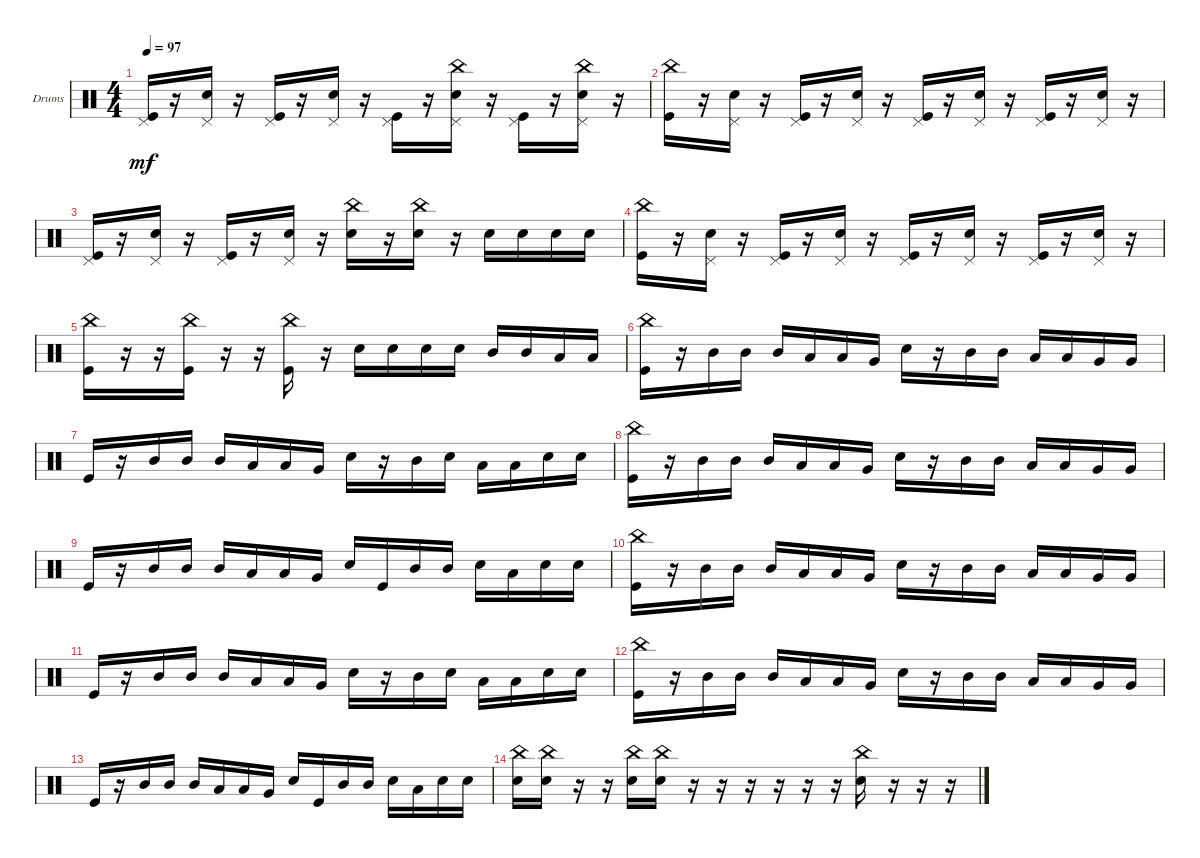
\defaultSystemsLayout 4
\bracketExtendMode groupsimilarinstruments
\firstSystemTrackNameOrientation horizontal
\otherSystemsTrackNameOrientation horizontal
\track ("Drumkit" "Drums") {instrument percussion}
\staff {score}
\articulation defaults
\ts (4 4)
\tempo 97
\clef neutral
\ks c
("Kick (hit)" "Pedal Hi-Hat (hit)").16{dy mf} r.16 ("Snare (hit) 2" "Pedal Hi-Hat (hit)").16 r.16 ("Kick (hit)" "Pedal Hi-Hat (hit)").16 r.16 ("Pedal Hi-Hat (hit)" "Snare (hit) 2").16 r.16 ("Pedal Hi-Hat (hit)" "Kick (hit)").16 r.16 ("Pedal Hi-Hat (hit)" "Snare (hit) 2" "China (hit)").16 r.16 ("Pedal Hi-Hat (hit)" "Kick (hit)").16 r.16 ("Pedal Hi-Hat (hit)" "Snare (hit) 2" "China (hit)").16 r.16 |
("Kick (hit)" "China (hit)").16 r.16 ("Snare (hit) 2" "Pedal Hi-Hat (hit)").16 r.16 ("Kick (hit)" "Pedal Hi-Hat (hit)").16 r.16 ("Pedal Hi-Hat (hit)" "Snare (hit) 2").16 r.16 ("Pedal Hi-Hat (hit)" "Kick (hit)").16 r.16 ("Pedal Hi-Hat (hit)" "Snare (hit) 2").16 r.16 ("Pedal Hi-Hat (hit)" "Kick (hit)").16 r.16 ("Pedal Hi-Hat (hit)" "Snare (hit) 2").16 r.16 |
("Pedal Hi-Hat (hit)" "Kick (hit)").16 r.16 ("Pedal Hi-Hat (hit)" "Snare (hit) 2").16 r.16 ("Pedal Hi-Hat (hit)" "Kick (hit)").16 r.16 ("Pedal Hi-Hat (hit)" "Snare (hit) 2").16 r.16 ("Snare (hit) 2" "China (hit)").16 r.16 ("China (hit)" "Snare (hit) 2").16 r.16 "Snare (hit) 2".16 "Snare (hit) 2".16 "Snare (hit) 2".16 "Snare (hit) 2".16 |
("Kick (hit)" "China (hit)").16 r.16 ("Snare (hit) 2" "Pedal Hi-Hat (hit)").16 r.16 ("Kick (hit)" "Pedal Hi-Hat (hit)").16 r.16 ("Pedal Hi-Hat (hit)" "Snare (hit) 2").16 r.16 ("Pedal Hi-Hat (hit)" "Kick (hit)").16 r.16 ("Pedal Hi-Hat (hit)" "Snare (hit) 2").16 r.16 ("Pedal Hi-Hat (hit)" "Kick (hit)").16 r.16 ("Pedal Hi-Hat (hit)" "Snare (hit) 2").16 r.16 |
("Kick (hit)" "China (hit)").16 r.16 r.16 ("Kick (hit)" "China (hit)").16 r.16 r.16 ("China (hit)" "Kick (hit)").16 r.16 "Snare (hit) 2".16 "Snare (hit) 2".16 "Snare (hit) 2".16 "Snare (hit) 2".16 "Mid Tom (hit)".16 "Mid Tom (hit)".16 "Low Tom (hit)".16 "Low Tom (hit)".16 |
("Kick (hit)" "China (hit)").16 r.16 "Mid Tom (hit)".16 "Mid Tom (hit)".16 "Mid Tom (hit)".16 "Low Tom (hit)".16 "Low Tom (hit)".16 "Very Low Tom (hit)".16 "Snare (hit) 2".16 r.16 "Mid Tom (hit)".16 "Mid Tom (hit)".16 "Low Tom (hit)".16 "Low Tom (hit)".16 "Very Low Tom (hit)".16 "Very Low Tom (hit)".16 |
"Kick (hit)".16 r.16 "Mid Tom (hit)".16 "Mid Tom (hit)".16 "Mid Tom (hit)".16 "Low Tom (hit)".16 "Low Tom (hit)".16 "Very Low Tom (hit)".16 "Snare (hit) 2".16 r.16 "Mid Tom (hit)".16 "Snare (hit) 2".16 "Low Tom (hit)".16 "Low Tom (hit)".16 "Snare (hit) 2".16 "Snare (hit) 2".16 |
("Kick (hit)" "China (hit)").16 r.16 "Mid Tom (hit)".16 "Mid Tom (hit)".16 "Mid Tom (hit)".16 "Low Tom (hit)".16 "Low Tom (hit)".16 "Very Low Tom (hit)".16 "Snare (hit) 2".16 r.16 "Mid Tom (hit)".16 "Mid Tom (hit)".16 "Low Tom (hit)".16 "Low Tom (hit)".16 "Very Low Tom (hit)".16 "Very Low Tom (hit)".16 |
"Kick (hit)".16 r.16 "Mid Tom (hit)".16 "Mid Tom (hit)".16 "Mid Tom (hit)".16 "Low Tom (hit)".16 "Low Tom (hit)".16 "Very Low Tom (hit)".16 "Snare (hit) 2".16 "Kick (hit)".16 "Mid Tom (hit)".16 "Mid Tom (hit)".16 "Snare (hit) 2".16 "Low Tom (hit)".16 "Snare (hit) 2".16 "Snare (hit) 2".16 |
("Kick (hit)" "China (hit)").16 r.16 "Mid Tom (hit)".16 "Mid Tom (hit)".16 "Mid Tom (hit)".16 "Low Tom (hit)".16 "Low Tom (hit)".16 "Very Low Tom (hit)".16 "Snare (hit) 2".16 r.16 "Mid Tom (hit)".16 "Mid Tom (hit)".16 "Low Tom (hit)".16 "Low Tom (hit)".16 "Very Low Tom (hit)".16 "Very Low Tom (hit)".16 |
"Kick (hit)".16 r.16 "Mid Tom (hit)".16 "Mid Tom (hit)".16 "Mid Tom (hit)".16 "Low Tom (hit)".16 "Low Tom (hit)".16 "Very Low Tom (hit)".16 "Snare (hit) 2".16 r.16 "Mid Tom (hit)".16 "Snare (hit) 2".16 "Low Tom (hit)".16 "Low Tom (hit)".16 "Snare (hit) 2".16 "Snare (hit) 2".16 |
("Kick (hit)" "China (hit)").16 r.16 "Mid Tom (hit)".16 "Mid Tom (hit)".16 "Mid Tom (hit)".16 "Low Tom (hit)".16 "Low Tom (hit)".16 "Very Low Tom (hit)".16 "Snare (hit) 2".16 r.16 "Mid Tom (hit)".16 "Mid Tom (hit)".16 "Low Tom (hit)".16 "Low Tom (hit)".16 "Very Low Tom (hit)".16 "Very Low Tom (hit)".16 |
"Kick (hit)".16 r.16 "Mid Tom (hit)".16 "Mid Tom (hit)".16 "Mid Tom (hit)".16 "Low Tom (hit)".16 "Low Tom (hit)".16 "Very Low Tom (hit)".16 "Snare (hit) 2".16 "Kick (hit)".16 "Mid Tom (hit)".16 "Mid Tom (hit)".16 "Snare (hit) 2".16 "Low Tom (hit)".16 "Snare (hit) 2".16 "Snare (hit) 2".16 |
("Snare (hit) 2" "China (hit)").16 ("Snare (hit) 2" "China (hit)").16 r.16 r.16 ("Snare (hit) 2" "China (hit)").16 ("Snare (hit) 2" "China (hit)").16 r.16 r.16 r.16 r.16 r.16 r.16 ("Snare (hit) 2" "China (hit)").16 r.16 r.16 r.16
